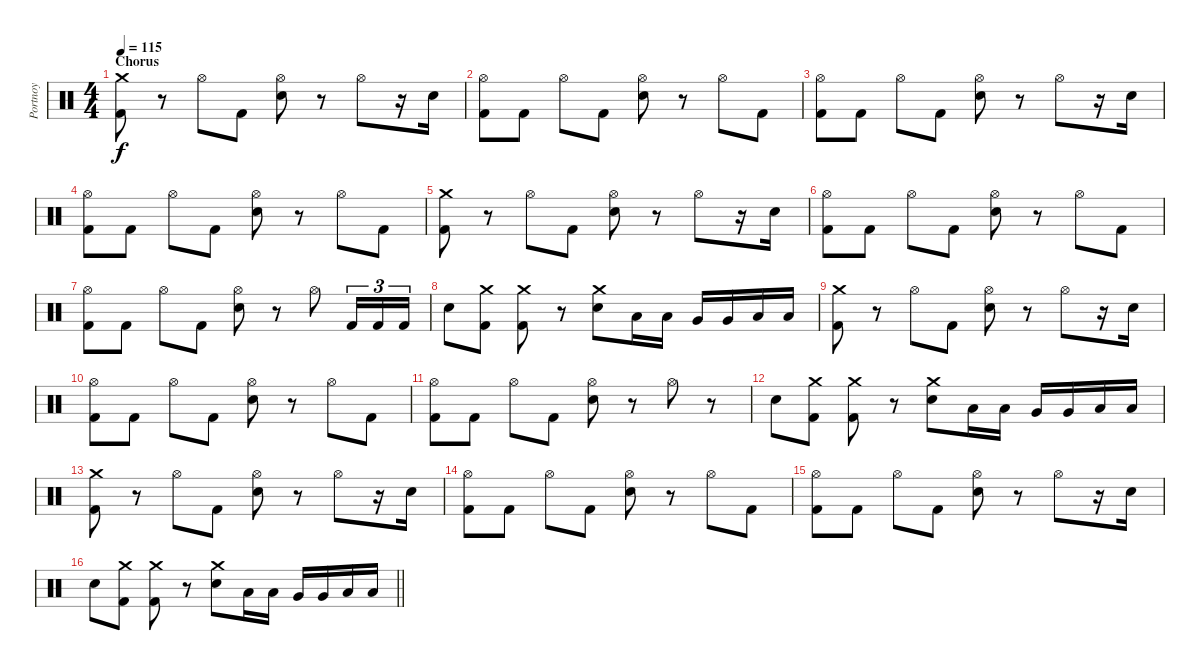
\track ("Portnoy" "Portnoy") {instrument percussion}
\staff {score}
\articulation defaults
\ts (4 4)
\section ("" "Chorus")
\tempo 115
\clef neutral
\ks c
("Crash medium (hit)" "Kick (hit) 2").8{dy f} r.8 "Hi-Hat (open)".8 "Kick (hit) 2".8 ("Hi-Hat (open)" "Snare (hit) 2").8 r.8 "Hi-Hat (open)".8 r.16 "Snare (hit) 2".16 |
("Hi-Hat (open)" "Kick (hit) 2").8 "Kick (hit) 2".8 "Hi-Hat (open)".8 "Kick (hit) 2".8 ("Hi-Hat (open)" "Snare (hit) 2").8 r.8 "Hi-Hat (open)".8 "Kick (hit) 2".8 |
("Hi-Hat (open)" "Kick (hit) 2").8 "Kick (hit) 2".8 "Hi-Hat (open)".8 "Kick (hit) 2".8 ("Hi-Hat (open)" "Snare (hit) 2").8 r.8 "Hi-Hat (open)".8 r.16 "Snare (hit) 2".16 |
("Hi-Hat (open)" "Kick (hit) 2").8 "Kick (hit) 2".8 "Hi-Hat (open)".8 "Kick (hit) 2".8 ("Hi-Hat (open)" "Snare (hit) 2").8 r.8 "Hi-Hat (open)".8 "Kick (hit) 2".8 |
("Crash medium (hit)" "Kick (hit) 2").8 r.8 "Hi-Hat (open)".8 "Kick (hit) 2".8 ("Hi-Hat (open)" "Snare (hit) 2").8 r.8 "Hi-Hat (open)".8 r.16 "Snare (hit) 2".16 |
("Hi-Hat (open)" "Kick (hit) 2").8 "Kick (hit) 2".8 "Hi-Hat (open)".8 "Kick (hit) 2".8 ("Hi-Hat (open)" "Snare (hit) 2").8 r.8 "Hi-Hat (open)".8 "Kick (hit) 2".8 |
("Hi-Hat (open)" "Kick (hit) 2").8 "Kick (hit) 2".8 "Hi-Hat (open)".8 "Kick (hit) 2".8 ("Hi-Hat (open)" "Snare (hit) 2").8 r.8 "Hi-Hat (open)".8 "Kick (hit) 2".16{tu (3 2)} "Kick (hit) 2".16{tu (3 2)} "Kick (hit) 2".16{tu (3 2)} |
"Snare (hit) 2".8 ("Crash medium (hit)" "Kick (hit) 2").8 ("Crash medium (hit)" "Kick (hit) 2").8 r.8 ("Crash medium (hit)" "Snare (hit) 2").8 "Low Tom (hit)".16 "Low Tom (hit)".16 "Very Low Tom (hit)".16 "Very Low Tom (hit)".16 "Low Floor Tom (hit)".16 "Low Floor Tom (hit)".16 |
("Crash medium (hit)" "Kick (hit) 2").8 r.8 "Hi-Hat (open)".8 "Kick (hit) 2".8 ("Hi-Hat (open)" "Snare (hit) 2").8 r.8 "Hi-Hat (open)".8 r.16 "Snare (hit) 2".16 |
("Hi-Hat (open)" "Kick (hit) 2").8 "Kick (hit) 2".8 "Hi-Hat (open)".8 "Kick (hit) 2".8 ("Hi-Hat (open)" "Snare (hit) 2").8 r.8 "Hi-Hat (open)".8 "Kick (hit) 2".8 |
("Hi-Hat (open)" "Kick (hit) 2").8 "Kick (hit) 2".8 "Hi-Hat (open)".8 "Kick (hit) 2".8 ("Hi-Hat (open)" "Snare (hit) 2").8 r.8 "Hi-Hat (open)".8 r.8 |
"Snare (hit) 2".8 ("Crash medium (hit)" "Kick (hit) 2").8 ("Crash medium (hit)" "Kick (hit) 2").8 r.8 ("Crash medium (hit)" "Snare (hit) 2").8 "Low Tom (hit)".16 "Low Tom (hit)".16 "Very Low Tom (hit)".16 "Very Low Tom (hit)".16 "Low Floor Tom (hit)".16 "Low Floor Tom (hit)".16 |
("Crash medium (hit)" "Kick (hit) 2").8 r.8 "Hi-Hat (open)".8 "Kick (hit) 2".8 ("Hi-Hat (open)" "Snare (hit) 2").8 r.8 "Hi-Hat (open)".8 r.16 "Snare (hit) 2".16 |
("Hi-Hat (open)" "Kick (hit) 2").8 "Kick (hit) 2".8 "Hi-Hat (open)".8 "Kick (hit) 2".8 ("Hi-Hat (open)" "Snare (hit) 2").8 r.8 "Hi-Hat (open)".8 "Kick (hit) 2".8 |
("Hi-Hat (open)" "Kick (hit) 2").8 "Kick (hit) 2".8 "Hi-Hat (open)".8 "Kick (hit) 2".8 ("Hi-Hat (open)" "Snare (hit) 2").8 r.8 "Hi-Hat (open)".8 r.16 "Snare (hit) 2".16 |
\barLineRight lightlight "Snare (hit) 2".8
("Crash medium (hit)" "Kick (hit) 2").8 ("Crash medium (hit)" "Kick (hit) 2").8 r.8 ("Crash medium (hit)" "Snare (hit) 2").8 "Low Tom (hit)".16 "Low Tom (hit)".16 "Very Low Tom (hit)".16 "Very Low Tom (hit)".16 "Low Floor Tom (hit)".16 "Low Floor Tom (hit)".16
